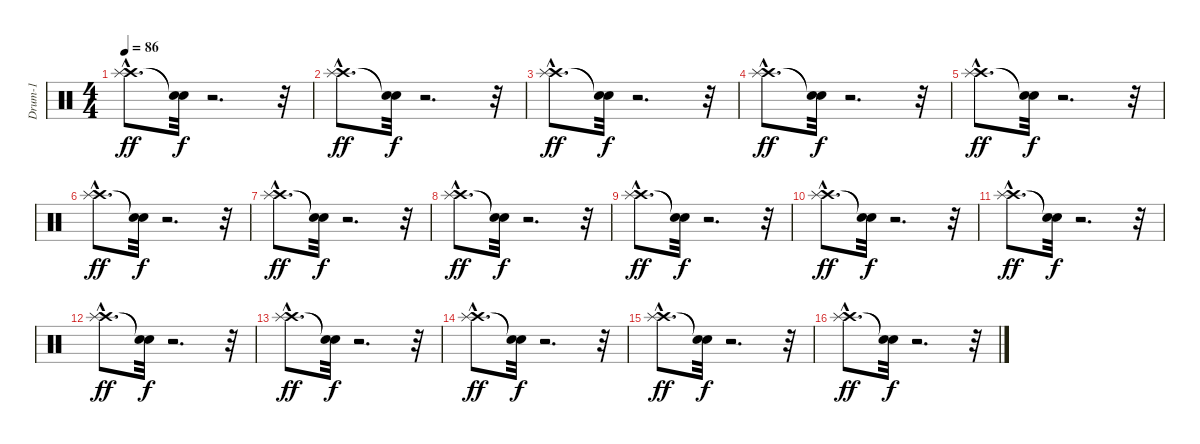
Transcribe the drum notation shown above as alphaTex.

\track ("Drum-1" "Drum-1") {instrument percussion}
\staff {score}
\articulation defaults
\ts (4 4)
\tempo 86
\clef neutral
\ks c
("Crash high (hit)"{hac} "Splash (hit)"{hac}).8{d dy ff} ("Snare (hit)"{t} "Snare (hit)"{t}).32{dy f} r.2{d} r.32 |
("Crash high (hit)"{hac} "Splash (hit)"{hac}).8{d dy ff} ("Snare (hit)"{t} "Snare (hit)"{t}).32{dy f} r.2{d} r.32 |
("Crash high (hit)"{hac} "Splash (hit)"{hac}).8{d dy ff} ("Snare (hit)"{t} "Snare (hit)"{t}).32{dy f} r.2{d} r.32 |
("Crash high (hit)"{hac} "Splash (hit)"{hac}).8{d dy ff} ("Snare (hit)"{t} "Snare (hit)"{t}).32{dy f} r.2{d} r.32 |
("Crash high (hit)"{hac} "Splash (hit)"{hac}).8{d dy ff} ("Snare (hit)"{t} "Snare (hit)"{t}).32{dy f} r.2{d} r.32 |
("Crash high (hit)"{hac} "Splash (hit)"{hac}).8{d dy ff} ("Snare (hit)"{t} "Snare (hit)"{t}).32{dy f} r.2{d} r.32 |
("Crash high (hit)"{hac} "Splash (hit)"{hac}).8{d dy ff} ("Snare (hit)"{t} "Snare (hit)"{t}).32{dy f} r.2{d} r.32 |
("Crash high (hit)"{hac} "Splash (hit)"{hac}).8{d dy ff} ("Snare (hit)"{t} "Snare (hit)"{t}).32{dy f} r.2{d} r.32 |
("Crash high (hit)"{hac} "Splash (hit)"{hac}).8{d dy ff} ("Snare (hit)"{t} "Snare (hit)"{t}).32{dy f} r.2{d} r.32 |
("Crash high (hit)"{hac} "Splash (hit)"{hac}).8{d dy ff} ("Snare (hit)"{t} "Snare (hit)"{t}).32{dy f} r.2{d} r.32 |
("Crash high (hit)"{hac} "Splash (hit)"{hac}).8{d dy ff} ("Snare (hit)"{t} "Snare (hit)"{t}).32{dy f} r.2{d} r.32 |
("Crash high (hit)"{hac} "Splash (hit)"{hac}).8{d dy ff} ("Snare (hit)"{t} "Snare (hit)"{t}).32{dy f} r.2{d} r.32 |
("Crash high (hit)"{hac} "Splash (hit)"{hac}).8{d dy ff} ("Snare (hit)"{t} "Snare (hit)"{t}).32{dy f} r.2{d} r.32 |
("Crash high (hit)"{hac} "Splash (hit)"{hac}).8{d dy ff} ("Snare (hit)"{t} "Snare (hit)"{t}).32{dy f} r.2{d} r.32 |
("Crash high (hit)"{hac} "Splash (hit)"{hac}).8{d dy ff} ("Snare (hit)"{t} "Snare (hit)"{t}).32{dy f} r.2{d} r.32 |
("Crash high (hit)"{hac} "Splash (hit)"{hac}).8{d dy ff} ("Snare (hit)"{t} "Snare (hit)"{t}).32{dy f} r.2{d} r.32
